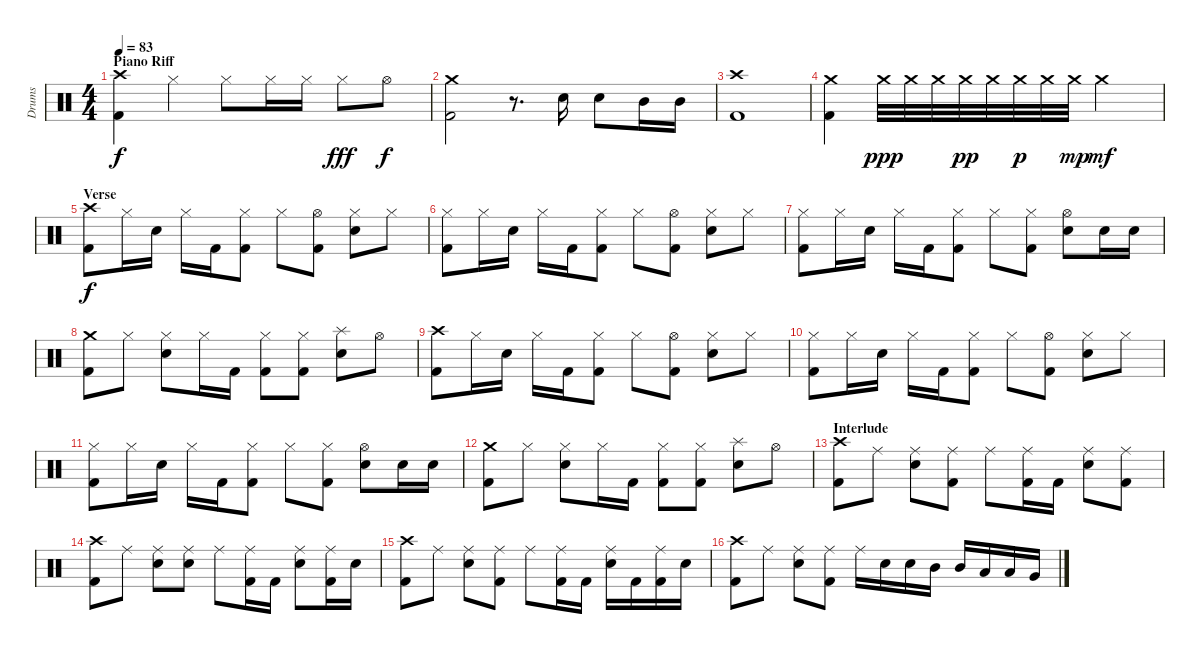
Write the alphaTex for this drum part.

\track ("Drums" "Drums") {instrument percussion}
\staff {score}
\articulation defaults
\ts (4 4)
\section ("" "Piano Riff")
\tempo 83
\clef neutral
\ks c
("Crash high (hit)" "Kick (hit) 2").4{dy f} "Hi-Hat (closed)".4 "Hi-Hat (closed)".8 "Hi-Hat (closed)".16 "Hi-Hat (closed)".16 "Hi-Hat (closed)".8{dy fff} "Hi-Hat (open)".8{dy f} |
("Crash medium (hit)" "Kick (hit) 2").2 r.8{d} "Electric Snare (hit)".16 "Electric Snare (hit)".8 "Mid Tom (hit)".16 "Mid Tom (hit)".16 |
("Crash high (hit)" "Kick (hit) 2").1 |
("Crash medium (hit)" "Kick (hit) 2").4 "Crash medium (hit)".32{dy ppp} "Crash medium (hit)".32 "Crash medium (hit)".32 "Crash medium (hit)".32{dy pp} "Crash medium (hit)".32 "Crash medium (hit)".32{dy p} "Crash medium (hit)".32 "Crash medium (hit)".32{dy mp} "Crash medium (hit)".2{dy mf} |
\section ("" "Verse")
("Crash high (hit)" "Kick (hit) 2").8{dy f} "Hi-Hat (closed)".16 "Electric Snare (hit)".16 "Hi-Hat (closed)".16 "Kick (hit) 2".16 ("Hi-Hat (closed)" "Kick (hit) 2").8 "Hi-Hat (closed)".8 ("Hi-Hat (open)" "Kick (hit) 2").8 ("Hi-Hat (closed)" "Electric Snare (hit)").8 "Hi-Hat (closed)".8 |
("Hi-Hat (closed)" "Kick (hit) 2").8 "Hi-Hat (closed)".16 "Electric Snare (hit)".16 "Hi-Hat (closed)".16 "Kick (hit) 2".16 ("Hi-Hat (closed)" "Kick (hit) 2").8 "Hi-Hat (closed)".8 ("Hi-Hat (open)" "Kick (hit) 2").8 ("Hi-Hat (closed)" "Electric Snare (hit)").8 "Hi-Hat (closed)".8 |
("Hi-Hat (closed)" "Kick (hit) 2").8 "Hi-Hat (closed)".16 "Electric Snare (hit)".16 "Hi-Hat (closed)".16 "Kick (hit) 2".16 ("Hi-Hat (closed)" "Kick (hit) 2").8 "Hi-Hat (closed)".8 ("Hi-Hat (closed)" "Kick (hit) 2").8 ("Hi-Hat (open)" "Electric Snare (hit)").8 "Electric Snare (hit)".16 "Electric Snare (hit)".16 |
("Crash medium (hit)" "Kick (hit) 2").8 "Hi-Hat (closed)".8 ("Hi-Hat (closed)" "Electric Snare (hit)").8 "Hi-Hat (closed)".16 "Kick (hit) 2".16 ("Hi-Hat (closed)" "Kick (hit) 2").8 ("Hi-Hat (closed)" "Kick (hit) 2").8 ("Splash (hit)" "Electric Snare (hit)").8 "Hi-Hat (open)".8 |
("Crash high (hit)" "Kick (hit) 2").8 "Hi-Hat (closed)".16 "Electric Snare (hit)".16 "Hi-Hat (closed)".16 "Kick (hit) 2".16 ("Hi-Hat (closed)" "Kick (hit) 2").8 "Hi-Hat (closed)".8 ("Hi-Hat (open)" "Kick (hit) 2").8 ("Hi-Hat (closed)" "Electric Snare (hit)").8 "Hi-Hat (closed)".8 |
("Hi-Hat (closed)" "Kick (hit) 2").8 "Hi-Hat (closed)".16 "Electric Snare (hit)".16 "Hi-Hat (closed)".16 "Kick (hit) 2".16 ("Hi-Hat (closed)" "Kick (hit) 2").8 "Hi-Hat (closed)".8 ("Hi-Hat (open)" "Kick (hit) 2").8 ("Hi-Hat (closed)" "Electric Snare (hit)").8 "Hi-Hat (closed)".8 |
("Hi-Hat (closed)" "Kick (hit) 2").8 "Hi-Hat (closed)".16 "Electric Snare (hit)".16 "Hi-Hat (closed)".16 "Kick (hit) 2".16 ("Hi-Hat (closed)" "Kick (hit) 2").8 "Hi-Hat (closed)".8 ("Hi-Hat (closed)" "Kick (hit) 2").8 ("Hi-Hat (open)" "Electric Snare (hit)").8 "Electric Snare (hit)".16 "Electric Snare (hit)".16 |
("Crash medium (hit)" "Kick (hit) 2").8 "Hi-Hat (closed)".8 ("Hi-Hat (closed)" "Electric Snare (hit)").8 "Hi-Hat (closed)".16 "Kick (hit) 2".16 ("Hi-Hat (closed)" "Kick (hit) 2").8 ("Hi-Hat (closed)" "Kick (hit) 2").8 ("Splash (hit)" "Electric Snare (hit)").8 "Hi-Hat (open)".8 |
\section ("" "Interlude")
("Crash high (hit)" "Kick (hit) 2").8 "Ride (middle)".8 ("Ride (middle)" "Electric Snare (hit)").8 ("Ride (middle)" "Kick (hit) 2").8 "Ride (middle)".8 ("Ride (middle)" "Kick (hit) 2").16 "Kick (hit) 2".16 ("Ride (middle)" "Electric Snare (hit)").8 ("Ride (middle)" "Kick (hit) 2").8 |
("Crash high (hit)" "Kick (hit) 2").8 "Ride (middle)".8 ("Ride (middle)" "Electric Snare (hit)").8 ("Ride (middle)" "Electric Snare (hit)").8 "Ride (middle)".8 ("Ride (middle)" "Kick (hit) 2").16 "Kick (hit) 2".16 ("Ride (middle)" "Electric Snare (hit)").8 ("Ride (middle)" "Kick (hit) 2").16 "Electric Snare (hit)".16 |
("Crash high (hit)" "Kick (hit) 2").8 "Ride (middle)".8 ("Ride (middle)" "Electric Snare (hit)").8 ("Ride (middle)" "Kick (hit) 2").8 "Ride (middle)".8 ("Ride (middle)" "Kick (hit) 2").16 "Kick (hit) 2".16 ("Ride (middle)" "Electric Snare (hit)").16 "Kick (hit) 2".16 ("Ride (middle)" "Kick (hit) 2").16 "Electric Snare (hit)".16 |
("Crash high (hit)" "Kick (hit) 2").8 "Ride (middle)".8 ("Ride (middle)" "Electric Snare (hit)").8 ("Ride (middle)" "Kick (hit) 2").8 "Ride (middle)".16 "Electric Snare (hit)".16 "Electric Snare (hit)".16 "Mid Tom (hit)".16 "Mid Tom (hit)".16 "Low Tom (hit)".16 "Low Tom (hit)".16 "Very Low Tom (hit)".16
